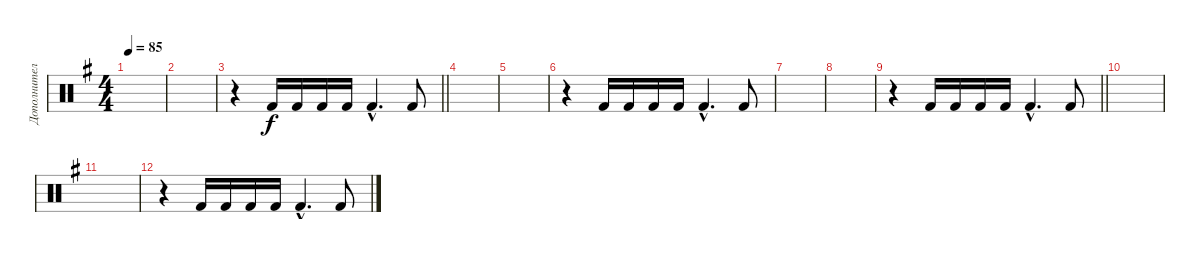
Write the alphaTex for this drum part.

\track ("Дополнительно" "Дополнител") {instrument percussion}
\staff {score}
\articulation defaults
\ts (4 4)
\tempo 85
\clef neutral
\ks eminor
|
|
\barLineRight lightlight
r.4 "Kick (hit) 2".16 "Kick (hit) 2".16 "Kick (hit) 2".16 "Kick (hit) 2".16 "Kick (hit) 2"{hac}.4{d} "Kick (hit) 2".8 |
|
|
r.4 "Kick (hit) 2".16 "Kick (hit) 2".16 "Kick (hit) 2".16 "Kick (hit) 2".16 "Kick (hit) 2"{hac}.4{d} "Kick (hit) 2".8 |
|
|
\barLineRight lightlight
r.4 "Kick (hit) 2".16 "Kick (hit) 2".16 "Kick (hit) 2".16 "Kick (hit) 2".16 "Kick (hit) 2"{hac}.4{d} "Kick (hit) 2".8 |
|
|
r.4 "Kick (hit) 2".16 "Kick (hit) 2".16 "Kick (hit) 2".16 "Kick (hit) 2".16 "Kick (hit) 2"{hac}.4{d} "Kick (hit) 2".8
